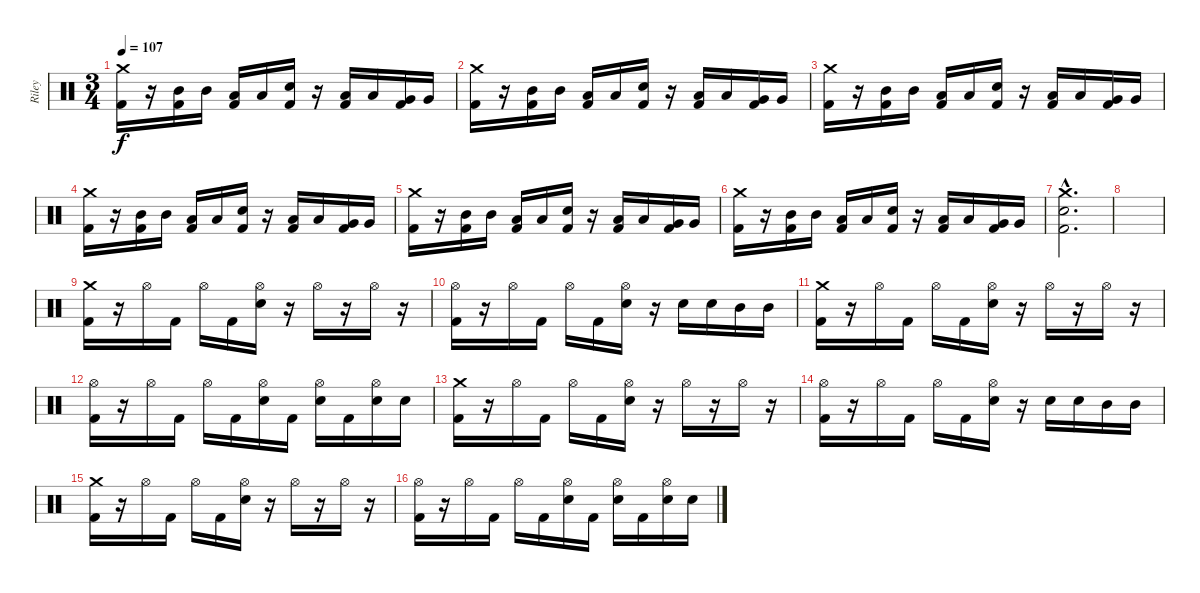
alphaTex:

\track ("Riley" "Riley") {instrument percussion}
\staff {score}
\articulation defaults
\ts (3 4)
\tempo 107
\clef neutral
\ks c
("Crash medium (hit)" "Kick (hit) 2").16{dy f} r.16 ("Mid Tom (hit)" "Kick (hit) 2").16 "Mid Tom (hit)".16 ("Low Tom (hit)" "Kick (hit) 2").16 "Low Tom (hit)".16 ("Electric Snare (hit)" "Kick (hit) 2").16 r.16 ("Low Tom (hit)" "Kick (hit) 2").16 "Low Tom (hit)".16 ("Very Low Tom (hit)" "Kick (hit) 2").16 "Very Low Tom (hit)".16 |
("Crash medium (hit)" "Kick (hit) 2").16 r.16 ("Mid Tom (hit)" "Kick (hit) 2").16 "Mid Tom (hit)".16 ("Low Tom (hit)" "Kick (hit) 2").16 "Low Tom (hit)".16 ("Electric Snare (hit)" "Kick (hit) 2").16 r.16 ("Low Tom (hit)" "Kick (hit) 2").16 "Low Tom (hit)".16 ("Very Low Tom (hit)" "Kick (hit) 2").16 "Very Low Tom (hit)".16 |
("Crash medium (hit)" "Kick (hit) 2").16 r.16 ("Mid Tom (hit)" "Kick (hit) 2").16 "Mid Tom (hit)".16 ("Low Tom (hit)" "Kick (hit) 2").16 "Low Tom (hit)".16 ("Electric Snare (hit)" "Kick (hit) 2").16 r.16 ("Low Tom (hit)" "Kick (hit) 2").16 "Low Tom (hit)".16 ("Very Low Tom (hit)" "Kick (hit) 2").16 "Very Low Tom (hit)".16 |
("Crash medium (hit)" "Kick (hit) 2").16 r.16 ("Mid Tom (hit)" "Kick (hit) 2").16 "Mid Tom (hit)".16 ("Low Tom (hit)" "Kick (hit) 2").16 "Low Tom (hit)".16 ("Electric Snare (hit)" "Kick (hit) 2").16 r.16 ("Low Tom (hit)" "Kick (hit) 2").16 "Low Tom (hit)".16 ("Very Low Tom (hit)" "Kick (hit) 2").16 "Very Low Tom (hit)".16 |
("Crash medium (hit)" "Kick (hit) 2").16 r.16 ("Mid Tom (hit)" "Kick (hit) 2").16 "Mid Tom (hit)".16 ("Low Tom (hit)" "Kick (hit) 2").16 "Low Tom (hit)".16 ("Electric Snare (hit)" "Kick (hit) 2").16 r.16 ("Low Tom (hit)" "Kick (hit) 2").16 "Low Tom (hit)".16 ("Very Low Tom (hit)" "Kick (hit) 2").16 "Very Low Tom (hit)".16 |
("Crash medium (hit)" "Kick (hit) 2").16 r.16 ("Mid Tom (hit)" "Kick (hit) 2").16 "Mid Tom (hit)".16 ("Low Tom (hit)" "Kick (hit) 2").16 "Low Tom (hit)".16 ("Electric Snare (hit)" "Kick (hit) 2").16 r.16 ("Low Tom (hit)" "Kick (hit) 2").16 "Low Tom (hit)".16 ("Very Low Tom (hit)" "Kick (hit) 2").16 "Very Low Tom (hit)".16 |
("Crash medium (hit)"{hac} "Electric Snare (hit)"{hac} "Kick (hit) 2"{hac}).2{d} |
|
("Crash medium (hit)" "Kick (hit) 2").16 r.16 "Hi-Hat (open)".16 "Kick (hit) 2".16 "Hi-Hat (open)".16 "Kick (hit) 2".16 ("Hi-Hat (open)" "Electric Snare (hit)").16 r.16 "Hi-Hat (open)".16 r.16 "Hi-Hat (open)".16 r.16 |
("Hi-Hat (open)" "Kick (hit) 2").16 r.16 "Hi-Hat (open)".16 "Kick (hit) 2".16 "Hi-Hat (open)".16 "Kick (hit) 2".16 ("Hi-Hat (open)" "Electric Snare (hit)").16 r.16 "Electric Snare (hit)".16 "Electric Snare (hit)".16 "Mid Tom (hit)".16 "Mid Tom (hit)".16 |
("Crash medium (hit)" "Kick (hit) 2").16 r.16 "Hi-Hat (open)".16 "Kick (hit) 2".16 "Hi-Hat (open)".16 "Kick (hit) 2".16 ("Hi-Hat (open)" "Electric Snare (hit)").16 r.16 "Hi-Hat (open)".16 r.16 "Hi-Hat (open)".16 r.16 |
("Hi-Hat (open)" "Kick (hit) 2").16 r.16 "Hi-Hat (open)".16 "Kick (hit) 2".16 "Hi-Hat (open)".16 "Kick (hit) 2".16 ("Hi-Hat (open)" "Electric Snare (hit)").16 "Kick (hit) 2".16 ("Hi-Hat (open)" "Electric Snare (hit)").16 "Kick (hit) 2".16 ("Hi-Hat (open)" "Electric Snare (hit)").16 "Electric Snare (hit)".16 |
("Crash medium (hit)" "Kick (hit) 2").16 r.16 "Hi-Hat (open)".16 "Kick (hit) 2".16 "Hi-Hat (open)".16 "Kick (hit) 2".16 ("Hi-Hat (open)" "Electric Snare (hit)").16 r.16 "Hi-Hat (open)".16 r.16 "Hi-Hat (open)".16 r.16 |
("Hi-Hat (open)" "Kick (hit) 2").16 r.16 "Hi-Hat (open)".16 "Kick (hit) 2".16 "Hi-Hat (open)".16 "Kick (hit) 2".16 ("Hi-Hat (open)" "Electric Snare (hit)").16 r.16 "Electric Snare (hit)".16 "Electric Snare (hit)".16 "Mid Tom (hit)".16 "Mid Tom (hit)".16 |
("Crash medium (hit)" "Kick (hit) 2").16 r.16 "Hi-Hat (open)".16 "Kick (hit) 2".16 "Hi-Hat (open)".16 "Kick (hit) 2".16 ("Hi-Hat (open)" "Electric Snare (hit)").16 r.16 "Hi-Hat (open)".16 r.16 "Hi-Hat (open)".16 r.16 |
("Hi-Hat (open)" "Kick (hit) 2").16 r.16 "Hi-Hat (open)".16 "Kick (hit) 2".16 "Hi-Hat (open)".16 "Kick (hit) 2".16 ("Hi-Hat (open)" "Electric Snare (hit)").16 "Kick (hit) 2".16 ("Hi-Hat (open)" "Electric Snare (hit)").16 "Kick (hit) 2".16 ("Hi-Hat (open)" "Electric Snare (hit)").16 "Electric Snare (hit)".16
